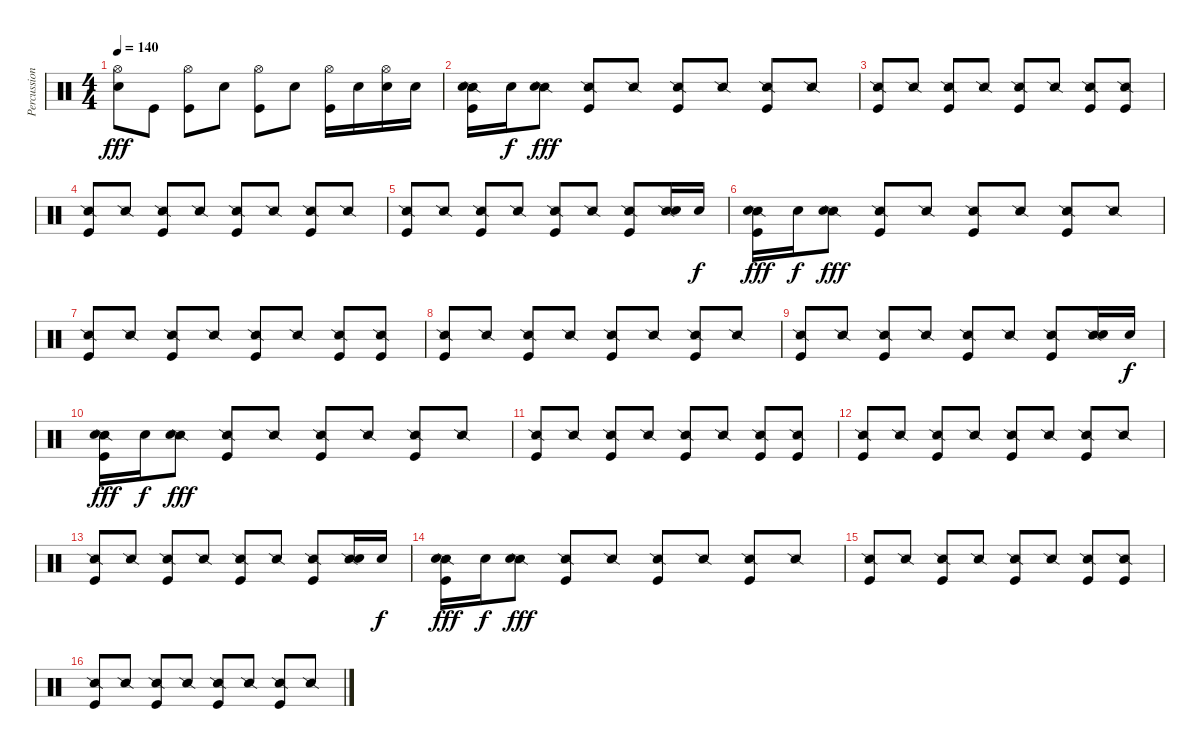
\track ("Percussion" "Percussion") {instrument percussion}
\staff {score}
\articulation defaults
\ts (4 4)
\tempo 140
\clef neutral
\ks c
("Snare (hit) 2" "Hi-Hat (open)").8{dy fff} "Kick (hit)".8 ("Kick (hit)" "Hi-Hat (open)").8 "Snare (hit) 2".8 ("Kick (hit)" "Hi-Hat (open)").8 "Snare (hit) 2".8 ("Kick (hit)" "Hi-Hat (open)").16 "Snare (hit) 2".16 ("Snare (hit) 2" "Hi-Hat (open)").16 "Snare (hit) 2".16 |
("Snare (side stick) 2" "Snare (hit) 2" "Kick (hit)").16 "Snare (hit) 2".16{dy f} ("Snare (side stick) 2" "Snare (hit) 2").8{dy fff} ("Snare (side stick) 2" "Kick (hit)").8 "Snare (side stick) 2".8 ("Snare (side stick) 2" "Kick (hit)").8 "Snare (side stick) 2".8 ("Snare (side stick) 2" "Kick (hit)").8 "Snare (side stick) 2".8 |
("Snare (side stick) 2" "Kick (hit)").8 "Snare (side stick) 2".8 ("Snare (side stick) 2" "Kick (hit)").8 "Snare (side stick) 2".8 ("Snare (side stick) 2" "Kick (hit)").8 "Snare (side stick) 2".8 ("Snare (side stick) 2" "Kick (hit)").8 ("Snare (side stick) 2" "Kick (hit)").8 |
("Snare (side stick) 2" "Kick (hit)").8 "Snare (side stick) 2".8 ("Snare (side stick) 2" "Kick (hit)").8 "Snare (side stick) 2".8 ("Snare (side stick) 2" "Kick (hit)").8 "Snare (side stick) 2".8 ("Snare (side stick) 2" "Kick (hit)").8 "Snare (side stick) 2".8 |
("Snare (side stick) 2" "Kick (hit)").8 "Snare (side stick) 2".8 ("Snare (side stick) 2" "Kick (hit)").8 "Snare (side stick) 2".8 ("Snare (side stick) 2" "Kick (hit)").8 "Snare (side stick) 2".8 ("Snare (side stick) 2" "Kick (hit)").8 ("Snare (side stick) 2" "Snare (hit) 2").16 "Snare (hit) 2".16{dy f} |
("Snare (side stick) 2" "Snare (hit) 2" "Kick (hit)").16{dy fff} "Snare (hit) 2".16{dy f} ("Snare (side stick) 2" "Snare (hit) 2").8{dy fff} ("Snare (side stick) 2" "Kick (hit)").8 "Snare (side stick) 2".8 ("Snare (side stick) 2" "Kick (hit)").8 "Snare (side stick) 2".8 ("Snare (side stick) 2" "Kick (hit)").8 "Snare (side stick) 2".8 |
("Snare (side stick) 2" "Kick (hit)").8 "Snare (side stick) 2".8 ("Snare (side stick) 2" "Kick (hit)").8 "Snare (side stick) 2".8 ("Snare (side stick) 2" "Kick (hit)").8 "Snare (side stick) 2".8 ("Snare (side stick) 2" "Kick (hit)").8 ("Snare (side stick) 2" "Kick (hit)").8 |
("Snare (side stick) 2" "Kick (hit)").8 "Snare (side stick) 2".8 ("Snare (side stick) 2" "Kick (hit)").8 "Snare (side stick) 2".8 ("Snare (side stick) 2" "Kick (hit)").8 "Snare (side stick) 2".8 ("Snare (side stick) 2" "Kick (hit)").8 "Snare (side stick) 2".8 |
("Snare (side stick) 2" "Kick (hit)").8 "Snare (side stick) 2".8 ("Snare (side stick) 2" "Kick (hit)").8 "Snare (side stick) 2".8 ("Snare (side stick) 2" "Kick (hit)").8 "Snare (side stick) 2".8 ("Snare (side stick) 2" "Kick (hit)").8 ("Snare (side stick) 2" "Snare (hit) 2").16 "Snare (hit) 2".16{dy f} |
("Snare (side stick) 2" "Snare (hit) 2" "Kick (hit)").16{dy fff} "Snare (hit) 2".16{dy f} ("Snare (side stick) 2" "Snare (hit) 2").8{dy fff} ("Snare (side stick) 2" "Kick (hit)").8 "Snare (side stick) 2".8 ("Snare (side stick) 2" "Kick (hit)").8 "Snare (side stick) 2".8 ("Snare (side stick) 2" "Kick (hit)").8 "Snare (side stick) 2".8 |
("Snare (side stick) 2" "Kick (hit)").8 "Snare (side stick) 2".8 ("Snare (side stick) 2" "Kick (hit)").8 "Snare (side stick) 2".8 ("Snare (side stick) 2" "Kick (hit)").8 "Snare (side stick) 2".8 ("Snare (side stick) 2" "Kick (hit)").8 ("Snare (side stick) 2" "Kick (hit)").8 |
("Snare (side stick) 2" "Kick (hit)").8 "Snare (side stick) 2".8 ("Snare (side stick) 2" "Kick (hit)").8 "Snare (side stick) 2".8 ("Snare (side stick) 2" "Kick (hit)").8 "Snare (side stick) 2".8 ("Snare (side stick) 2" "Kick (hit)").8 "Snare (side stick) 2".8 |
("Snare (side stick) 2" "Kick (hit)").8 "Snare (side stick) 2".8 ("Snare (side stick) 2" "Kick (hit)").8 "Snare (side stick) 2".8 ("Snare (side stick) 2" "Kick (hit)").8 "Snare (side stick) 2".8 ("Snare (side stick) 2" "Kick (hit)").8 ("Snare (side stick) 2" "Snare (hit) 2").16 "Snare (hit) 2".16{dy f} |
("Snare (side stick) 2" "Snare (hit) 2" "Kick (hit)").16{dy fff} "Snare (hit) 2".16{dy f} ("Snare (side stick) 2" "Snare (hit) 2").8{dy fff} ("Snare (side stick) 2" "Kick (hit)").8 "Snare (side stick) 2".8 ("Snare (side stick) 2" "Kick (hit)").8 "Snare (side stick) 2".8 ("Snare (side stick) 2" "Kick (hit)").8 "Snare (side stick) 2".8 |
("Snare (side stick) 2" "Kick (hit)").8 "Snare (side stick) 2".8 ("Snare (side stick) 2" "Kick (hit)").8 "Snare (side stick) 2".8 ("Snare (side stick) 2" "Kick (hit)").8 "Snare (side stick) 2".8 ("Snare (side stick) 2" "Kick (hit)").8 ("Snare (side stick) 2" "Kick (hit)").8 |
("Snare (side stick) 2" "Kick (hit)").8 "Snare (side stick) 2".8 ("Snare (side stick) 2" "Kick (hit)").8 "Snare (side stick) 2".8 ("Snare (side stick) 2" "Kick (hit)").8 "Snare (side stick) 2".8 ("Snare (side stick) 2" "Kick (hit)").8 "Snare (side stick) 2".8
